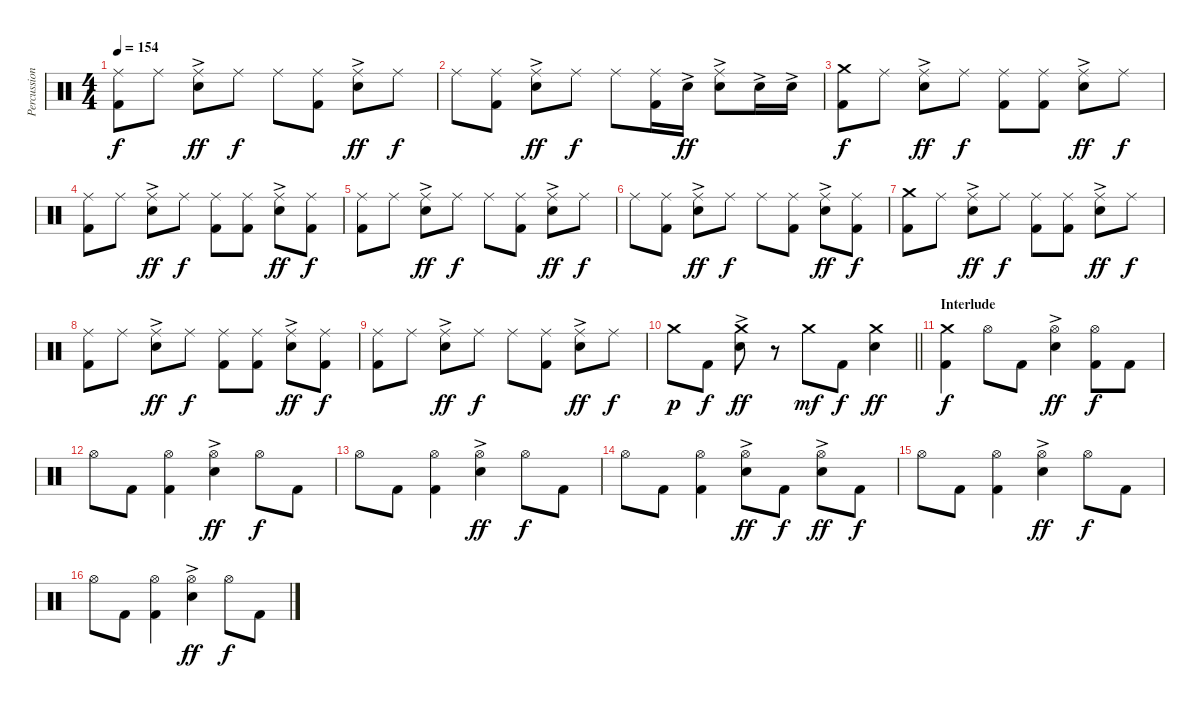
\track ("Percussion" "Percussion") {instrument percussion}
\staff {score}
\articulation defaults
\ts (4 4)
\tempo 154
\clef neutral
\ks c
("Ride (middle)" "Kick (hit) 2").8{dy f} "Ride (middle)".8 ("Ride (middle)" "Electric Snare (hit)"{ac}).8{dy ff} "Ride (middle)".8{dy f} "Ride (middle)".8 ("Ride (middle)" "Kick (hit) 2").8 ("Ride (middle)" "Electric Snare (hit)"{ac}).8{dy ff} "Ride (middle)".8{dy f} |
"Ride (middle)".8 ("Ride (middle)" "Kick (hit) 2").8 ("Ride (middle)" "Electric Snare (hit)"{ac}).8{dy ff} "Ride (middle)".8{dy f} "Ride (middle)".8 ("Ride (middle)" "Kick (hit) 2").16 "Electric Snare (hit)"{ac}.16{dy ff} ("Ride (middle)" "Electric Snare (hit)"{ac}).8 "Electric Snare (hit)"{ac}.16 "Electric Snare (hit)"{ac}.16 |
("Crash medium (hit)" "Kick (hit) 2").8{dy f} "Ride (middle)".8 ("Ride (middle)" "Electric Snare (hit)"{ac}).8{dy ff} "Ride (middle)".8{dy f} ("Ride (middle)" "Kick (hit) 2").8 ("Ride (middle)" "Kick (hit) 2").8 ("Ride (middle)" "Electric Snare (hit)"{ac}).8{dy ff} "Ride (middle)".8{dy f} |
("Ride (middle)" "Kick (hit) 2").8 "Ride (middle)".8 ("Ride (middle)" "Electric Snare (hit)"{ac}).8{dy ff} "Ride (middle)".8{dy f} ("Ride (middle)" "Kick (hit) 2").8 ("Ride (middle)" "Kick (hit) 2").8 ("Ride (middle)" "Electric Snare (hit)"{ac}).8{dy ff} ("Ride (middle)" "Kick (hit) 2").8{dy f} |
("Ride (middle)" "Kick (hit) 2").8 "Ride (middle)".8 ("Ride (middle)" "Electric Snare (hit)"{ac}).8{dy ff} "Ride (middle)".8{dy f} "Ride (middle)".8 ("Ride (middle)" "Kick (hit) 2").8 ("Ride (middle)" "Electric Snare (hit)"{ac}).8{dy ff} "Ride (middle)".8{dy f} |
"Ride (middle)".8 ("Ride (middle)" "Kick (hit) 2").8 ("Ride (middle)" "Electric Snare (hit)"{ac}).8{dy ff} "Ride (middle)".8{dy f} "Ride (middle)".8 ("Ride (middle)" "Kick (hit) 2").8 ("Ride (middle)" "Electric Snare (hit)"{ac}).8{dy ff} ("Ride (middle)" "Kick (hit) 2").8{dy f} |
("Crash medium (hit)" "Kick (hit) 2").8 "Ride (middle)".8 ("Ride (middle)" "Electric Snare (hit)"{ac}).8{dy ff} "Ride (middle)".8{dy f} ("Ride (middle)" "Kick (hit) 2").8 ("Ride (middle)" "Kick (hit) 2").8 ("Ride (middle)" "Electric Snare (hit)"{ac}).8{dy ff} "Ride (middle)".8{dy f} |
("Ride (middle)" "Kick (hit) 2").8 "Ride (middle)".8 ("Ride (middle)" "Electric Snare (hit)"{ac}).8{dy ff} "Ride (middle)".8{dy f} ("Ride (middle)" "Kick (hit) 2").8 ("Ride (middle)" "Kick (hit) 2").8 ("Ride (middle)" "Electric Snare (hit)"{ac}).8{dy ff} ("Ride (middle)" "Kick (hit) 2").8{dy f} |
("Ride (middle)" "Kick (hit) 2").8 "Ride (middle)".8 ("Ride (middle)" "Electric Snare (hit)"{ac}).8{dy ff} "Ride (middle)".8{dy f} "Ride (middle)".8 ("Ride (middle)" "Kick (hit) 2").8 ("Ride (middle)" "Electric Snare (hit)"{ac}).8{dy ff} "Ride (middle)".8{dy f} |
\barLineRight lightlight "Crash medium (hit)".8{dy p} "Kick (hit) 2".8{dy f}
("Crash medium (hit)" "Electric Snare (hit)"{ac}).8{dy ff} r.8 "Crash medium (hit)".8{dy mf} "Kick (hit) 2".8{dy f} ("Crash medium (hit)" "Electric Snare (hit)").4{dy ff} |
\section ("" "Interlude")
("Crash medium (hit)" "Kick (hit) 2").4{dy f} "Hi-Hat (open)".8 "Kick (hit) 2".8 ("Hi-Hat (open)" "Electric Snare (hit)"{ac}).4{dy ff} ("Hi-Hat (open)" "Kick (hit) 2").8{dy f} "Kick (hit) 2".8 |
"Hi-Hat (open)".8 "Kick (hit) 2".8 ("Hi-Hat (open)" "Kick (hit) 2").4 ("Hi-Hat (open)" "Electric Snare (hit)"{ac}).4{dy ff} "Hi-Hat (open)".8{dy f} "Kick (hit) 2".8 |
"Hi-Hat (open)".8 "Kick (hit) 2".8 ("Hi-Hat (open)" "Kick (hit) 2").4 ("Hi-Hat (open)" "Electric Snare (hit)"{ac}).4{dy ff} "Hi-Hat (open)".8{dy f} "Kick (hit) 2".8 |
"Hi-Hat (open)".8 "Kick (hit) 2".8 ("Hi-Hat (open)" "Kick (hit) 2").4 ("Hi-Hat (open)" "Electric Snare (hit)"{ac}).8{dy ff} "Kick (hit) 2".8{dy f} ("Hi-Hat (open)" "Electric Snare (hit)"{ac}).8{dy ff} "Kick (hit) 2".8{dy f} |
"Hi-Hat (open)".8 "Kick (hit) 2".8 ("Hi-Hat (open)" "Kick (hit) 2").4 ("Hi-Hat (open)" "Electric Snare (hit)"{ac}).4{dy ff} "Hi-Hat (open)".8{dy f} "Kick (hit) 2".8 |
"Hi-Hat (open)".8 "Kick (hit) 2".8 ("Hi-Hat (open)" "Kick (hit) 2").4 ("Hi-Hat (open)" "Electric Snare (hit)"{ac}).4{dy ff} "Hi-Hat (open)".8{dy f} "Kick (hit) 2".8
